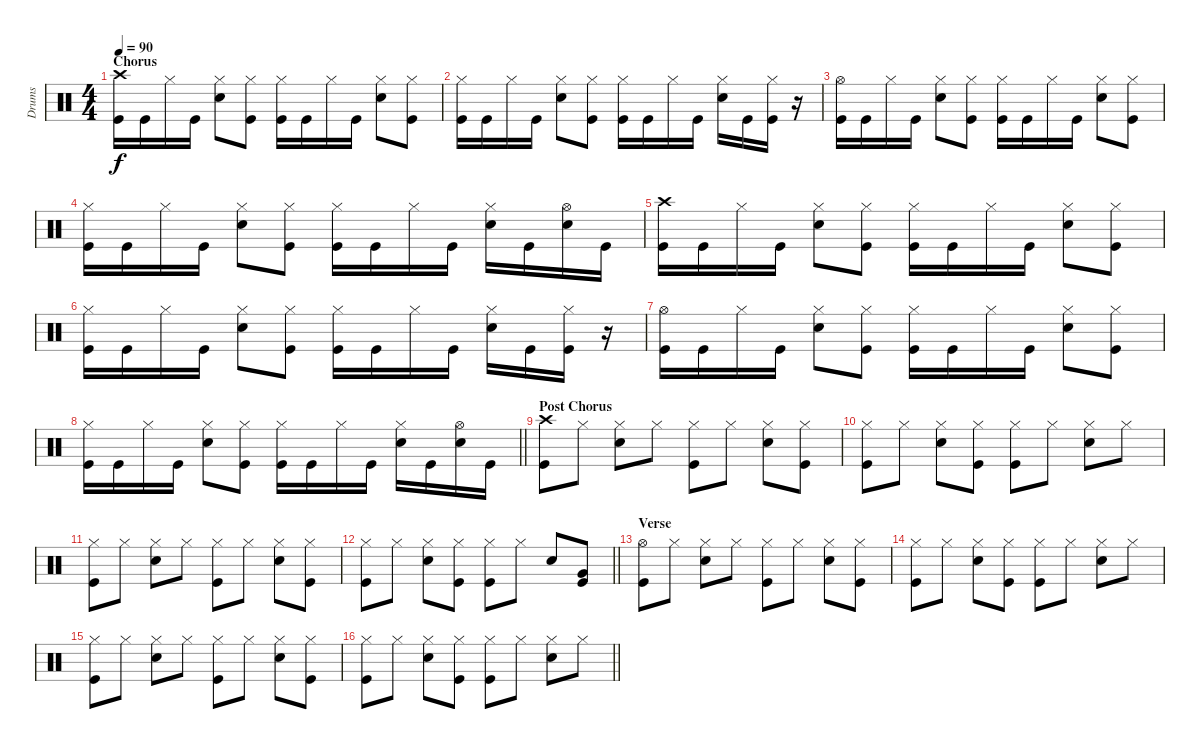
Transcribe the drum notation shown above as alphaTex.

\track ("Drums" "Drums") {instrument percussion}
\staff {score}
\articulation defaults
\ts (4 4)
\section ("" "Chorus")
\tempo 90
\clef neutral
\ks c
("Crash high (hit)" "Kick (hit)").16{dy f} "Kick (hit)".16 "Hi-Hat (closed)".16 "Kick (hit)".16 ("Hi-Hat (closed)" "Snare (hit) 2").8 ("Hi-Hat (closed)" "Kick (hit)").8 ("Hi-Hat (closed)" "Kick (hit)").16 "Kick (hit)".16 "Hi-Hat (closed)".16 "Kick (hit)".16 ("Hi-Hat (closed)" "Snare (hit) 2").8 ("Hi-Hat (closed)" "Kick (hit)").8 |
("Hi-Hat (closed)" "Kick (hit)").16 "Kick (hit)".16 "Hi-Hat (closed)".16 "Kick (hit)".16 ("Hi-Hat (closed)" "Snare (hit) 2").8 ("Hi-Hat (closed)" "Kick (hit)").8 ("Hi-Hat (closed)" "Kick (hit)").16 "Kick (hit)".16 "Hi-Hat (closed)".16 "Kick (hit)".16 ("Hi-Hat (closed)" "Snare (hit) 2").16 "Kick (hit)".16 ("Hi-Hat (closed)" "Kick (hit)").16 r.16 |
("Hi-Hat (open)" "Kick (hit)").16 "Kick (hit)".16 "Hi-Hat (closed)".16 "Kick (hit)".16 ("Hi-Hat (closed)" "Snare (hit) 2").8 ("Hi-Hat (closed)" "Kick (hit)").8 ("Hi-Hat (closed)" "Kick (hit)").16 "Kick (hit)".16 "Hi-Hat (closed)".16 "Kick (hit)".16 ("Hi-Hat (closed)" "Snare (hit) 2").8 ("Hi-Hat (closed)" "Kick (hit)").8 |
("Hi-Hat (closed)" "Kick (hit)").16 "Kick (hit)".16 "Hi-Hat (closed)".16 "Kick (hit)".16 ("Hi-Hat (closed)" "Snare (hit) 2").8 ("Hi-Hat (closed)" "Kick (hit)").8 ("Hi-Hat (closed)" "Kick (hit)").16 "Kick (hit)".16 "Hi-Hat (closed)".16 "Kick (hit)".16 ("Hi-Hat (closed)" "Snare (hit) 2").16 "Kick (hit)".16 ("Hi-Hat (open)" "Snare (hit) 2").16 "Kick (hit)".16 |
("Crash high (hit)" "Kick (hit)").16 "Kick (hit)".16 "Hi-Hat (closed)".16 "Kick (hit)".16 ("Hi-Hat (closed)" "Snare (hit) 2").8 ("Hi-Hat (closed)" "Kick (hit)").8 ("Hi-Hat (closed)" "Kick (hit)").16 "Kick (hit)".16 "Hi-Hat (closed)".16 "Kick (hit)".16 ("Hi-Hat (closed)" "Snare (hit) 2").8 ("Hi-Hat (closed)" "Kick (hit)").8 |
("Hi-Hat (closed)" "Kick (hit)").16 "Kick (hit)".16 "Hi-Hat (closed)".16 "Kick (hit)".16 ("Hi-Hat (closed)" "Snare (hit) 2").8 ("Hi-Hat (closed)" "Kick (hit)").8 ("Hi-Hat (closed)" "Kick (hit)").16 "Kick (hit)".16 "Hi-Hat (closed)".16 "Kick (hit)".16 ("Hi-Hat (closed)" "Snare (hit) 2").16 "Kick (hit)".16 ("Hi-Hat (closed)" "Kick (hit)").16 r.16 |
("Hi-Hat (open)" "Kick (hit)").16 "Kick (hit)".16 "Hi-Hat (closed)".16 "Kick (hit)".16 ("Hi-Hat (closed)" "Snare (hit) 2").8 ("Hi-Hat (closed)" "Kick (hit)").8 ("Hi-Hat (closed)" "Kick (hit)").16 "Kick (hit)".16 "Hi-Hat (closed)".16 "Kick (hit)".16 ("Hi-Hat (closed)" "Snare (hit) 2").8 ("Hi-Hat (closed)" "Kick (hit)").8 |
\barLineRight lightlight
("Hi-Hat (closed)" "Kick (hit)").16 "Kick (hit)".16 "Hi-Hat (closed)".16 "Kick (hit)".16 ("Hi-Hat (closed)" "Snare (hit) 2").8 ("Hi-Hat (closed)" "Kick (hit)").8 ("Hi-Hat (closed)" "Kick (hit)").16 "Kick (hit)".16 "Hi-Hat (closed)".16 "Kick (hit)".16 ("Hi-Hat (closed)" "Snare (hit) 2").16 "Kick (hit)".16 ("Hi-Hat (open)" "Snare (hit) 2").16 "Kick (hit)".16 |
\section ("" "Post Chorus")
("Crash high (hit)" "Kick (hit)").8 "Hi-Hat (closed)".8 ("Hi-Hat (closed)" "Snare (hit) 2").8 "Hi-Hat (closed)".8 ("Hi-Hat (closed)" "Kick (hit)").8 "Hi-Hat (closed)".8 ("Hi-Hat (closed)" "Snare (hit) 2").8 ("Hi-Hat (closed)" "Kick (hit)").8 |
("Hi-Hat (closed)" "Kick (hit)").8 "Hi-Hat (closed)".8 ("Hi-Hat (closed)" "Snare (hit) 2").8 ("Hi-Hat (closed)" "Kick (hit)").8 ("Hi-Hat (closed)" "Kick (hit)").8 "Hi-Hat (closed)".8 ("Hi-Hat (closed)" "Snare (hit) 2").8 "Hi-Hat (closed)".8 |
("Hi-Hat (closed)" "Kick (hit)").8 "Hi-Hat (closed)".8 ("Hi-Hat (closed)" "Snare (hit) 2").8 "Hi-Hat (closed)".8 ("Hi-Hat (closed)" "Kick (hit)").8 "Hi-Hat (closed)".8 ("Hi-Hat (closed)" "Snare (hit) 2").8 ("Hi-Hat (closed)" "Kick (hit)").8 |
\barLineRight lightlight
("Hi-Hat (closed)" "Kick (hit)").8 "Hi-Hat (closed)".8 ("Hi-Hat (closed)" "Snare (hit) 2").8 ("Hi-Hat (closed)" "Kick (hit)").8 ("Hi-Hat (closed)" "Kick (hit)").8 "Hi-Hat (closed)".8 "Snare (hit) 2".8 ("Very Low Tom (hit)" "Kick (hit)").8 |
\section ("" "Verse")
("Hi-Hat (open)" "Kick (hit)").8 "Hi-Hat (closed)".8 ("Hi-Hat (closed)" "Snare (hit) 2").8 "Hi-Hat (closed)".8 ("Hi-Hat (closed)" "Kick (hit)").8 "Hi-Hat (closed)".8 ("Hi-Hat (closed)" "Snare (hit) 2").8 ("Hi-Hat (closed)" "Kick (hit)").8 |
("Hi-Hat (closed)" "Kick (hit)").8 "Hi-Hat (closed)".8 ("Hi-Hat (closed)" "Snare (hit) 2").8 ("Hi-Hat (closed)" "Kick (hit)").8 ("Hi-Hat (closed)" "Kick (hit)").8 "Hi-Hat (closed)".8 ("Hi-Hat (closed)" "Snare (hit) 2").8 "Hi-Hat (closed)".8 |
("Hi-Hat (closed)" "Kick (hit)").8 "Hi-Hat (closed)".8 ("Hi-Hat (closed)" "Snare (hit) 2").8 "Hi-Hat (closed)".8 ("Hi-Hat (closed)" "Kick (hit)").8 "Hi-Hat (closed)".8 ("Hi-Hat (closed)" "Snare (hit) 2").8 ("Hi-Hat (closed)" "Kick (hit)").8 |
\barLineRight lightlight
("Hi-Hat (closed)" "Kick (hit)").8 "Hi-Hat (closed)".8 ("Hi-Hat (closed)" "Snare (hit) 2").8 ("Hi-Hat (closed)" "Kick (hit)").8 ("Hi-Hat (closed)" "Kick (hit)").8 "Hi-Hat (closed)".8 ("Hi-Hat (closed)" "Snare (hit) 2").8 "Hi-Hat (closed)".8
